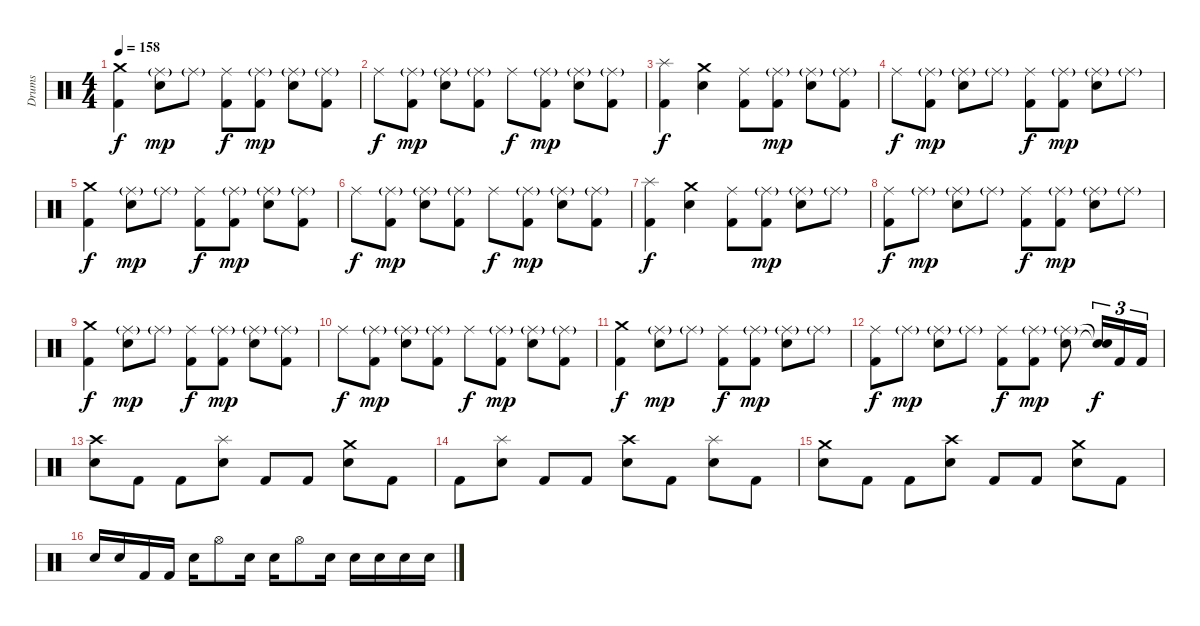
\track ("Drums" "Drums") {instrument percussion}
\staff {score}
\articulation defaults
\ts (4 4)
\tempo 158
\clef neutral
\ks c
("Crash medium (hit)" "Kick (hit) 2").4{dy f} ("Ride (middle)"{g} "Snare (hit) 2").8{dy mp} "Ride (middle)"{g}.8 ("Ride (middle)" "Kick (hit) 2").8{dy f} ("Ride (middle)"{g} "Kick (hit) 2").8{dy mp} ("Ride (middle)"{g} "Snare (hit) 2").8 ("Ride (middle)"{g} "Kick (hit) 2").8 |
"Ride (middle)".8{dy f} ("Ride (middle)"{g} "Kick (hit) 2").8{dy mp} ("Ride (middle)"{g} "Snare (hit) 2").8 ("Ride (middle)"{g} "Kick (hit) 2").8 "Ride (middle)".8{dy f} ("Ride (middle)"{g} "Kick (hit) 2").8{dy mp} ("Ride (middle)"{g} "Snare (hit) 2").8 ("Ride (middle)"{g} "Kick (hit) 2").8 |
("Splash (hit)" "Kick (hit) 2").4{dy f} ("Crash medium (hit)" "Snare (hit) 2").4 ("Ride (middle)" "Kick (hit) 2").8 ("Ride (middle)"{g} "Kick (hit) 2").8{dy mp} ("Ride (middle)"{g} "Snare (hit) 2").8 ("Ride (middle)"{g} "Kick (hit) 2").8 |
"Ride (middle)".8{dy f} ("Ride (middle)"{g} "Kick (hit) 2").8{dy mp} ("Ride (middle)"{g} "Snare (hit) 2").8 "Ride (middle)"{g}.8 ("Ride (middle)" "Kick (hit) 2").8{dy f} ("Ride (middle)"{g} "Kick (hit) 2").8{dy mp} ("Ride (middle)"{g} "Snare (hit) 2").8 "Ride (middle)"{g}.8 |
("Crash medium (hit)" "Kick (hit) 2").4{dy f} ("Ride (middle)"{g} "Snare (hit) 2").8{dy mp} "Ride (middle)"{g}.8 ("Ride (middle)" "Kick (hit) 2").8{dy f} ("Ride (middle)"{g} "Kick (hit) 2").8{dy mp} ("Ride (middle)"{g} "Snare (hit) 2").8 ("Ride (middle)"{g} "Kick (hit) 2").8 |
"Ride (middle)".8{dy f} ("Ride (middle)"{g} "Kick (hit) 2").8{dy mp} ("Ride (middle)"{g} "Snare (hit) 2").8 ("Ride (middle)"{g} "Kick (hit) 2").8 "Ride (middle)".8{dy f} ("Ride (middle)"{g} "Kick (hit) 2").8{dy mp} ("Ride (middle)"{g} "Snare (hit) 2").8 ("Ride (middle)"{g} "Kick (hit) 2").8 |
("Splash (hit)" "Kick (hit) 2").4{dy f} ("Crash medium (hit)" "Snare (hit) 2").4 ("Ride (middle)" "Kick (hit) 2").8 ("Ride (middle)"{g} "Kick (hit) 2").8{dy mp} ("Ride (middle)"{g} "Snare (hit) 2").8 "Ride (middle)"{g}.8 |
("Ride (middle)" "Kick (hit) 2").8{dy f} "Ride (middle)"{g}.8{dy mp} ("Ride (middle)"{g} "Snare (hit) 2").8 "Ride (middle)"{g}.8 ("Ride (middle)" "Kick (hit) 2").8{dy f} ("Ride (middle)"{g} "Kick (hit) 2").8{dy mp} ("Ride (middle)"{g} "Snare (hit) 2").8 "Ride (middle)"{g}.8 |
("Crash medium (hit)" "Kick (hit) 2").4{dy f} ("Ride (middle)"{g} "Snare (hit) 2").8{dy mp} "Ride (middle)"{g}.8 ("Ride (middle)" "Kick (hit) 2").8{dy f} ("Ride (middle)"{g} "Kick (hit) 2").8{dy mp} ("Ride (middle)"{g} "Snare (hit) 2").8 ("Ride (middle)"{g} "Kick (hit) 2").8 |
"Ride (middle)".8{dy f} ("Ride (middle)"{g} "Kick (hit) 2").8{dy mp} ("Ride (middle)"{g} "Snare (hit) 2").8 ("Ride (middle)"{g} "Kick (hit) 2").8 "Ride (middle)".8{dy f} ("Ride (middle)"{g} "Kick (hit) 2").8{dy mp} ("Ride (middle)"{g} "Snare (hit) 2").8 ("Ride (middle)"{g} "Kick (hit) 2").8 |
("Crash medium (hit)" "Kick (hit) 2").4{dy f} ("Ride (middle)"{g} "Snare (hit) 2").8{dy mp} "Ride (middle)"{g}.8 ("Ride (middle)" "Kick (hit) 2").8{dy f} ("Ride (middle)"{g} "Kick (hit) 2").8{dy mp} ("Ride (middle)"{g} "Snare (hit) 2").8 "Ride (middle)"{g}.8 |
("Ride (middle)" "Kick (hit) 2").8{dy f} "Ride (middle)"{g}.8{dy mp} ("Ride (middle)"{g} "Snare (hit) 2").8 "Ride (middle)"{g}.8 ("Ride (middle)" "Kick (hit) 2").8{dy f} ("Ride (middle)"{g} "Kick (hit) 2").8{dy mp} ("Ride (middle)"{g} "Snare (hit) 2").8 ("Snare (hit)"{t} "Snare (hit)"{t}).16{tu (3 2) dy f} "Kick (hit) 2".16{tu (3 2)} "Kick (hit) 2".16{tu (3 2)} |
("Crash high (hit)" "Snare (hit) 2").8 "Kick (hit) 2".8 "Kick (hit) 2".8 ("Splash (hit)" "Snare (hit) 2").8 "Kick (hit) 2".8 "Kick (hit) 2".8 ("Crash medium (hit)" "Snare (hit) 2").8 "Kick (hit) 2".8 |
"Kick (hit) 2".8 ("Splash (hit)" "Snare (hit) 2").8 "Kick (hit) 2".8 "Kick (hit) 2".8 ("Crash high (hit)" "Snare (hit) 2").8 "Kick (hit) 2".8 ("Splash (hit)" "Snare (hit) 2").8 "Kick (hit) 2".8 |
("Crash medium (hit)" "Snare (hit) 2").8 "Kick (hit) 2".8 "Kick (hit) 2".8 ("Crash high (hit)" "Snare (hit) 2").8 "Kick (hit) 2".8 "Kick (hit) 2".8 ("Crash medium (hit)" "Snare (hit) 2").8 "Kick (hit) 2".8 |
"Snare (hit) 2".16 "Snare (hit) 2".16 "Kick (hit) 2".16 "Kick (hit) 2".16 "Snare (hit) 2".16 "Hi-Hat (open)".8 "Snare (hit) 2".16 "Snare (hit) 2".16 "Hi-Hat (open)".8 "Snare (hit) 2".16 "Snare (hit) 2".16 "Snare (hit) 2".16 "Snare (hit) 2".16 "Snare (hit) 2".16
